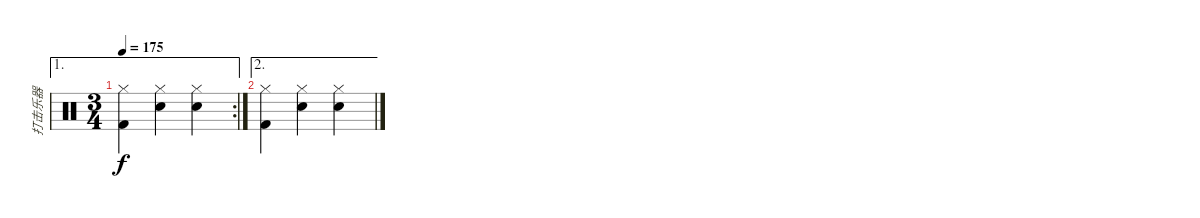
\track ("打击乐器" "打击乐器") {instrument percussion}
\staff {score}
\articulation defaults
\ae 1
\rc 2
\ts (3 4)
\tempo 175
\clef neutral
\ks c
("Kick (hit) 2" "Hi-Hat (closed)").4{dy f} ("Hi-Hat (closed)" "Electric Snare (hit)").4 ("Hi-Hat (closed)" "Electric Snare (hit)").4 |
\ae 2
("Kick (hit) 2" "Hi-Hat (closed)").4 ("Hi-Hat (closed)" "Electric Snare (hit)").4 ("Hi-Hat (closed)" "Electric Snare (hit)").4
